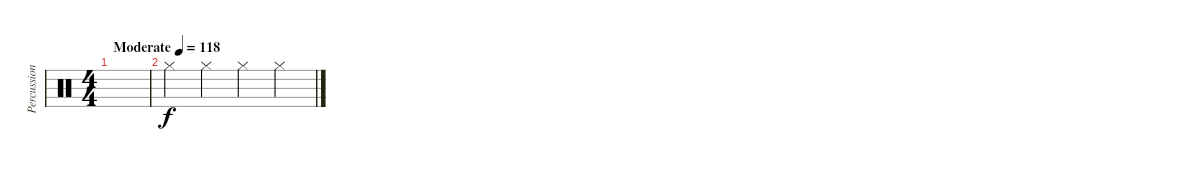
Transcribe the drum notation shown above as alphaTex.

\track ("Percussion" "Percussion") {instrument percussion}
\staff {score}
\articulation defaults
\ts (4 4)
\tempo (118 "Moderate")
\clef neutral
\ks c
|
"Hi-Hat (closed)".4 "Hi-Hat (closed)".4 "Hi-Hat (closed)".4 "Hi-Hat (closed)".4
